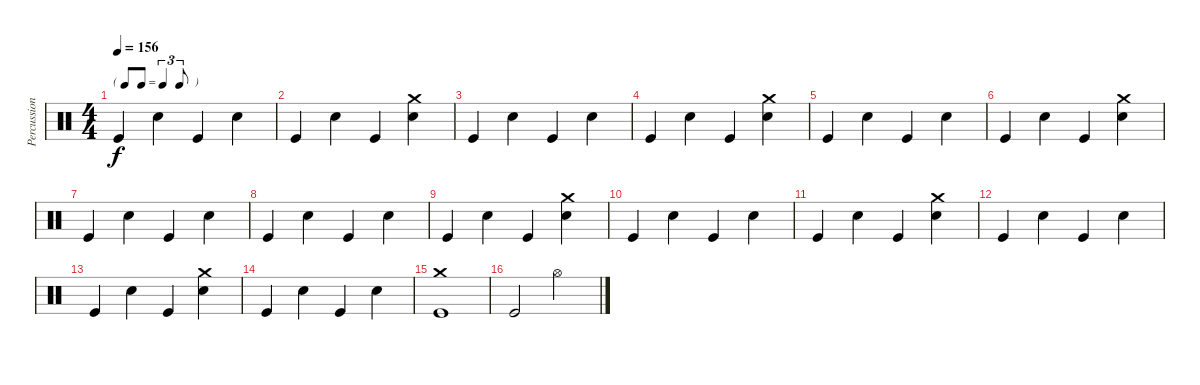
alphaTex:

\track ("Percussion" "Percussion") {instrument percussion}
\staff {score}
\articulation defaults
\ts (4 4)
\tf triplet8th
\tempo 156
\clef neutral
\ks c "Kick (hit)".4{dy f} "Snare (hit) 2".4 "Kick (hit)".4 "Snare (hit) 2".4
|
"Kick (hit)".4 "Snare (hit) 2".4 "Kick (hit)".4 ("Snare (hit) 2" "Crash medium (hit)").4 |
"Kick (hit)".4 "Snare (hit) 2".4 "Kick (hit)".4 "Snare (hit) 2".4 |
"Kick (hit)".4 "Snare (hit) 2".4 "Kick (hit)".4 ("Snare (hit) 2" "Crash medium (hit)").4 |
"Kick (hit)".4 "Snare (hit) 2".4 "Kick (hit)".4 "Snare (hit) 2".4 |
"Kick (hit)".4 "Snare (hit) 2".4 "Kick (hit)".4 ("Snare (hit) 2" "Crash medium (hit)").4 |
"Kick (hit)".4 "Snare (hit) 2".4 "Kick (hit)".4 "Snare (hit) 2".4 |
"Kick (hit)".4 "Snare (hit) 2".4 "Kick (hit)".4 "Snare (hit) 2".4 |
"Kick (hit)".4 "Snare (hit) 2".4 "Kick (hit)".4 ("Snare (hit) 2" "Crash medium (hit)").4 |
"Kick (hit)".4 "Snare (hit) 2".4 "Kick (hit)".4 "Snare (hit) 2".4 |
"Kick (hit)".4 "Snare (hit) 2".4 "Kick (hit)".4 ("Snare (hit) 2" "Crash medium (hit)").4 |
"Kick (hit)".4 "Snare (hit) 2".4 "Kick (hit)".4 "Snare (hit) 2".4 |
"Kick (hit)".4 "Snare (hit) 2".4 "Kick (hit)".4 ("Snare (hit) 2" "Crash medium (hit)").4 |
"Kick (hit)".4 "Snare (hit) 2".4 "Kick (hit)".4 "Snare (hit) 2".4 |
("Kick (hit)" "Crash medium (hit)").1 |
"Kick (hit)".2 "Hi-Hat (open)".2
